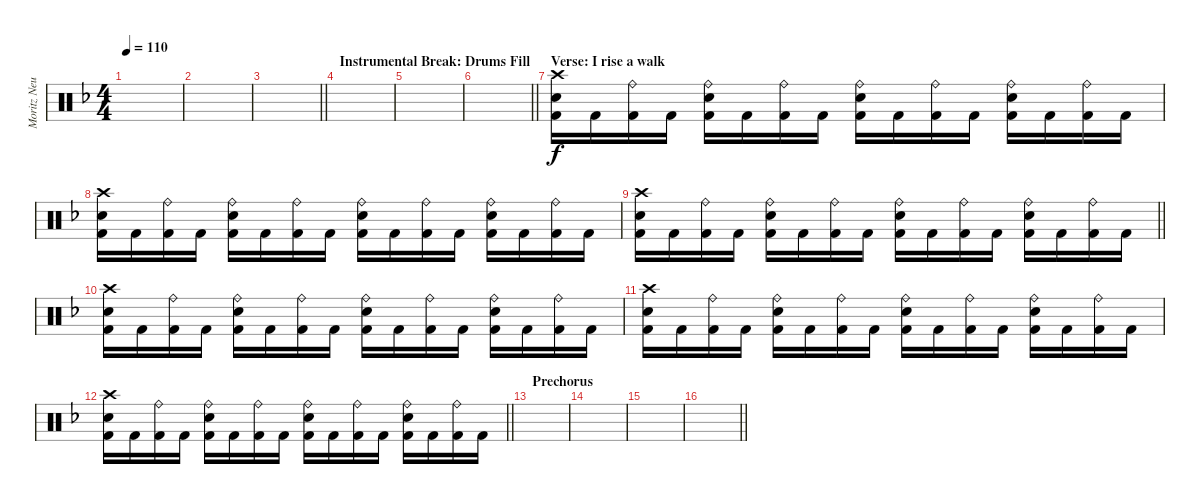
\track ("Moritz Neuner" "Moritz Neu") {instrument percussion}
\staff {score}
\articulation defaults
\ts (4 4)
\tempo 110
\clef neutral
\ks f
|
|
\barLineRight lightlight
|
\section ("" "Instrumental Break: Drums Fill")
|
|
\barLineRight lightlight
|
\section ("" "Verse: I rise a walk")
("Crash high (hit)" "Snare (hit) 2" "Kick (hit) 2").16 "Kick (hit) 2".16 ("Ride (bell)" "Kick (hit) 2").16 "Kick (hit) 2".16 ("Ride (bell)" "Snare (hit) 2" "Kick (hit) 2").16 "Kick (hit) 2".16 ("Ride (bell)" "Kick (hit) 2").16 "Kick (hit) 2".16 ("Ride (bell)" "Snare (hit) 2" "Kick (hit) 2").16 "Kick (hit) 2".16 ("Ride (bell)" "Kick (hit) 2").16 "Kick (hit) 2".16 ("Ride (bell)" "Snare (hit) 2" "Kick (hit) 2").16 "Kick (hit) 2".16 ("Ride (bell)" "Kick (hit) 2").16 "Kick (hit) 2".16 |
("Crash high (hit)" "Snare (hit) 2" "Kick (hit) 2").16 "Kick (hit) 2".16 ("Ride (bell)" "Kick (hit) 2").16 "Kick (hit) 2".16 ("Ride (bell)" "Snare (hit) 2" "Kick (hit) 2").16 "Kick (hit) 2".16 ("Ride (bell)" "Kick (hit) 2").16 "Kick (hit) 2".16 ("Ride (bell)" "Snare (hit) 2" "Kick (hit) 2").16 "Kick (hit) 2".16 ("Ride (bell)" "Kick (hit) 2").16 "Kick (hit) 2".16 ("Ride (bell)" "Snare (hit) 2" "Kick (hit) 2").16 "Kick (hit) 2".16 ("Ride (bell)" "Kick (hit) 2").16 "Kick (hit) 2".16 |
\barLineRight lightlight
("Crash high (hit)" "Snare (hit) 2" "Kick (hit) 2").16 "Kick (hit) 2".16 ("Ride (bell)" "Kick (hit) 2").16 "Kick (hit) 2".16 ("Ride (bell)" "Snare (hit) 2" "Kick (hit) 2").16 "Kick (hit) 2".16 ("Ride (bell)" "Kick (hit) 2").16 "Kick (hit) 2".16 ("Ride (bell)" "Snare (hit) 2" "Kick (hit) 2").16 "Kick (hit) 2".16 ("Ride (bell)" "Kick (hit) 2").16 "Kick (hit) 2".16 ("Ride (bell)" "Snare (hit) 2" "Kick (hit) 2").16 "Kick (hit) 2".16 ("Ride (bell)" "Kick (hit) 2").16 "Kick (hit) 2".16 |
\section ("" "")
("Crash high (hit)" "Snare (hit) 2" "Kick (hit) 2").16 "Kick (hit) 2".16 ("Ride (bell)" "Kick (hit) 2").16 "Kick (hit) 2".16 ("Ride (bell)" "Snare (hit) 2" "Kick (hit) 2").16 "Kick (hit) 2".16 ("Ride (bell)" "Kick (hit) 2").16 "Kick (hit) 2".16 ("Ride (bell)" "Snare (hit) 2" "Kick (hit) 2").16 "Kick (hit) 2".16 ("Ride (bell)" "Kick (hit) 2").16 "Kick (hit) 2".16 ("Ride (bell)" "Snare (hit) 2" "Kick (hit) 2").16 "Kick (hit) 2".16 ("Ride (bell)" "Kick (hit) 2").16 "Kick (hit) 2".16 |
("Crash high (hit)" "Snare (hit) 2" "Kick (hit) 2").16 "Kick (hit) 2".16 ("Ride (bell)" "Kick (hit) 2").16 "Kick (hit) 2".16 ("Ride (bell)" "Snare (hit) 2" "Kick (hit) 2").16 "Kick (hit) 2".16 ("Ride (bell)" "Kick (hit) 2").16 "Kick (hit) 2".16 ("Ride (bell)" "Snare (hit) 2" "Kick (hit) 2").16 "Kick (hit) 2".16 ("Ride (bell)" "Kick (hit) 2").16 "Kick (hit) 2".16 ("Ride (bell)" "Snare (hit) 2" "Kick (hit) 2").16 "Kick (hit) 2".16 ("Ride (bell)" "Kick (hit) 2").16 "Kick (hit) 2".16 |
\barLineRight lightlight
("Crash high (hit)" "Snare (hit) 2" "Kick (hit) 2").16 "Kick (hit) 2".16 ("Ride (bell)" "Kick (hit) 2").16 "Kick (hit) 2".16 ("Ride (bell)" "Snare (hit) 2" "Kick (hit) 2").16 "Kick (hit) 2".16 ("Ride (bell)" "Kick (hit) 2").16 "Kick (hit) 2".16 ("Ride (bell)" "Snare (hit) 2" "Kick (hit) 2").16 "Kick (hit) 2".16 ("Ride (bell)" "Kick (hit) 2").16 "Kick (hit) 2".16 ("Ride (bell)" "Snare (hit) 2" "Kick (hit) 2").16 "Kick (hit) 2".16 ("Ride (bell)" "Kick (hit) 2").16 "Kick (hit) 2".16 |
\section ("" "Prechorus")
|
|
|
\barLineRight lightlight
